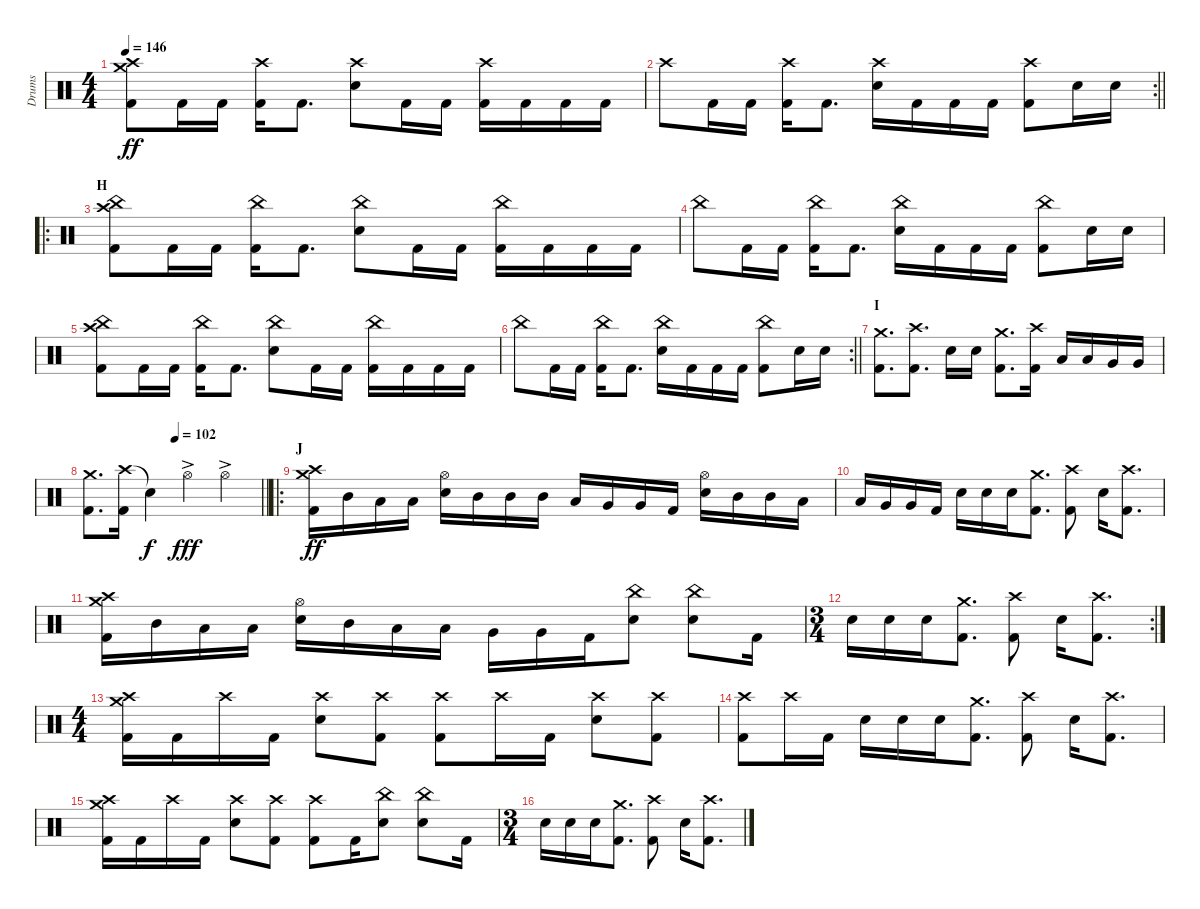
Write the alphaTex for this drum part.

\track ("Drums" "Drums") {instrument percussion}
\staff {score}
\articulation defaults
\ts (4 4)
\tempo 146
\clef neutral
\ks c
("Crash medium (hit)" "Crash high (hit)" "Kick (hit) 2").8{dy ff} "Kick (hit) 2".16 "Kick (hit) 2".16 ("Crash high (hit)" "Kick (hit) 2").16 "Kick (hit) 2".8{d} ("Crash high (hit)" "Electric Snare (hit)").8 "Kick (hit) 2".16 "Kick (hit) 2".16 ("Crash high (hit)" "Kick (hit) 2").16 "Kick (hit) 2".16 "Kick (hit) 2".16 "Kick (hit) 2".16 |
\rc 2
\barLineRight lightlight "Crash high (hit)".8 "Kick (hit) 2".16 "Kick (hit) 2".16
("Crash high (hit)" "Kick (hit) 2").16 "Kick (hit) 2".8{d} ("Crash high (hit)" "Electric Snare (hit)").16 "Kick (hit) 2".16 "Kick (hit) 2".16 "Kick (hit) 2".16 ("Crash high (hit)" "Kick (hit) 2").8 "Electric Snare (hit)".16 "Electric Snare (hit)".16 |
\ro
\section ("" "H")
("Crash high (hit)" "China (hit)" "Kick (hit) 2").8 "Kick (hit) 2".16 "Kick (hit) 2".16 ("China (hit)" "Kick (hit) 2").16 "Kick (hit) 2".8{d} ("China (hit)" "Electric Snare (hit)").8 "Kick (hit) 2".16 "Kick (hit) 2".16 ("China (hit)" "Kick (hit) 2").16 "Kick (hit) 2".16 "Kick (hit) 2".16 "Kick (hit) 2".16 |
"China (hit)".8 "Kick (hit) 2".16 "Kick (hit) 2".16 ("China (hit)" "Kick (hit) 2").16 "Kick (hit) 2".8{d} ("China (hit)" "Electric Snare (hit)").16 "Kick (hit) 2".16 "Kick (hit) 2".16 "Kick (hit) 2".16 ("China (hit)" "Kick (hit) 2").8 "Electric Snare (hit)".16 "Electric Snare (hit)".16 |
("Crash high (hit)" "China (hit)" "Kick (hit) 2").8 "Kick (hit) 2".16 "Kick (hit) 2".16 ("China (hit)" "Kick (hit) 2").16 "Kick (hit) 2".8{d} ("China (hit)" "Electric Snare (hit)").8 "Kick (hit) 2".16 "Kick (hit) 2".16 ("China (hit)" "Kick (hit) 2").16 "Kick (hit) 2".16 "Kick (hit) 2".16 "Kick (hit) 2".16 |
\rc 2
\barLineRight lightlight "China (hit)".8 "Kick (hit) 2".16 "Kick (hit) 2".16
("China (hit)" "Kick (hit) 2").16 "Kick (hit) 2".8{d} ("China (hit)" "Electric Snare (hit)").16 "Kick (hit) 2".16 "Kick (hit) 2".16 "Kick (hit) 2".16 ("China (hit)" "Kick (hit) 2").8 "Electric Snare (hit)".16 "Electric Snare (hit)".16 |
\section ("" "I")
("Crash medium (hit)" "Kick (hit) 2").8{d} ("Crash high (hit)" "Kick (hit) 2").8{d} "Electric Snare (hit)".16 "Electric Snare (hit)".16 ("Crash medium (hit)" "Kick (hit) 2").8{d} ("Crash high (hit)" "Kick (hit) 2").16 "Low Tom (hit)".16 "Low Tom (hit)".16 "Very Low Tom (hit)".16 "Very Low Tom (hit)".16 |
\tempo (102 0.5)
\barLineRight lightlight
("Crash medium (hit)" "Kick (hit) 2").8{d} ("Crash high (hit)" "Kick (hit) 2").16 "Snare (hit)"{t}.4{dy f} "Hi-Hat (open)"{ac}.4{dy fff} "Hi-Hat (open)"{ac}.4 |
\ro
\section ("" "J")
("Crash medium (hit)" "Crash high (hit)" "Kick (hit) 2").16{dy ff} "Mid Tom (hit)".16 "Low Tom (hit)".16 "Low Tom (hit)".16 ("Hi-Hat (open)" "Electric Snare (hit)").16 "Mid Tom (hit)".16 "Mid Tom (hit)".16 "Mid Tom (hit)".16 "Low Tom (hit)".16 "Very Low Tom (hit)".16 "Very Low Tom (hit)".16 "Kick (hit) 2".16 ("Hi-Hat (open)" "Electric Snare (hit)").16 "Mid Tom (hit)".16 "Mid Tom (hit)".16 "Low Tom (hit)".16 |
"Low Tom (hit)".16 "Very Low Tom (hit)".16 "Very Low Tom (hit)".16 "Kick (hit) 2".16 "Electric Snare (hit)".16 "Electric Snare (hit)".16 "Electric Snare (hit)".16 ("Crash medium (hit)" "Kick (hit) 2").8{d} ("Crash high (hit)" "Kick (hit) 2").8 "Electric Snare (hit)".16 ("Crash high (hit)" "Kick (hit) 2").8{d} |
("Crash medium (hit)" "Crash high (hit)" "Kick (hit) 2").16 "Mid Tom (hit)".16 "Low Tom (hit)".16 "Low Tom (hit)".16 ("Hi-Hat (open)" "Electric Snare (hit)").16 "Mid Tom (hit)".16 "Low Tom (hit)".16 "Low Tom (hit)".16 "Very Low Tom (hit)".16 "Very Low Tom (hit)".16 "Kick (hit) 2".16 ("China (hit)" "Electric Snare (hit)").8 ("China (hit)" "Electric Snare (hit)").8 "Kick (hit) 2".16 |
\rc 2
\ts (3 4)
"Electric Snare (hit)".16 "Electric Snare (hit)".16 "Electric Snare (hit)".16 ("Crash medium (hit)" "Kick (hit) 2").8{d} ("Crash high (hit)" "Kick (hit) 2").8 "Electric Snare (hit)".16 ("Crash high (hit)" "Kick (hit) 2").8{d} |
\ts (4 4)
("Crash medium (hit)" "Crash high (hit)" "Kick (hit) 2").16 "Kick (hit) 2".16 "Crash high (hit)".16 "Kick (hit) 2".16 ("Crash high (hit)" "Electric Snare (hit)").8 ("Crash high (hit)" "Kick (hit) 2").8 ("Crash high (hit)" "Kick (hit) 2").8 "Crash high (hit)".16 "Kick (hit) 2".16 ("Crash high (hit)" "Electric Snare (hit)").8 ("Crash high (hit)" "Kick (hit) 2").8 |
("Crash high (hit)" "Kick (hit) 2").8 "Crash high (hit)".16 "Kick (hit) 2".16 "Electric Snare (hit)".16 "Electric Snare (hit)".16 "Electric Snare (hit)".16 ("Crash medium (hit)" "Kick (hit) 2").8{d} ("Crash high (hit)" "Kick (hit) 2").8 "Electric Snare (hit)".16 ("Crash high (hit)" "Kick (hit) 2").8{d} |
("Crash medium (hit)" "Crash high (hit)" "Kick (hit) 2").16 "Kick (hit) 2".16 "Crash high (hit)".16 "Kick (hit) 2".16 ("Crash high (hit)" "Electric Snare (hit)").8 ("Crash high (hit)" "Kick (hit) 2").8 ("Crash high (hit)" "Kick (hit) 2").8 "Kick (hit) 2".16 ("China (hit)" "Electric Snare (hit)").8 ("China (hit)" "Electric Snare (hit)").8 "Kick (hit) 2".16 |
\ts (3 4)
"Electric Snare (hit)".16 "Electric Snare (hit)".16 "Electric Snare (hit)".16 ("Crash medium (hit)" "Kick (hit) 2").8{d} ("Crash high (hit)" "Kick (hit) 2").8 "Electric Snare (hit)".16 ("Crash high (hit)" "Kick (hit) 2").8{d}
